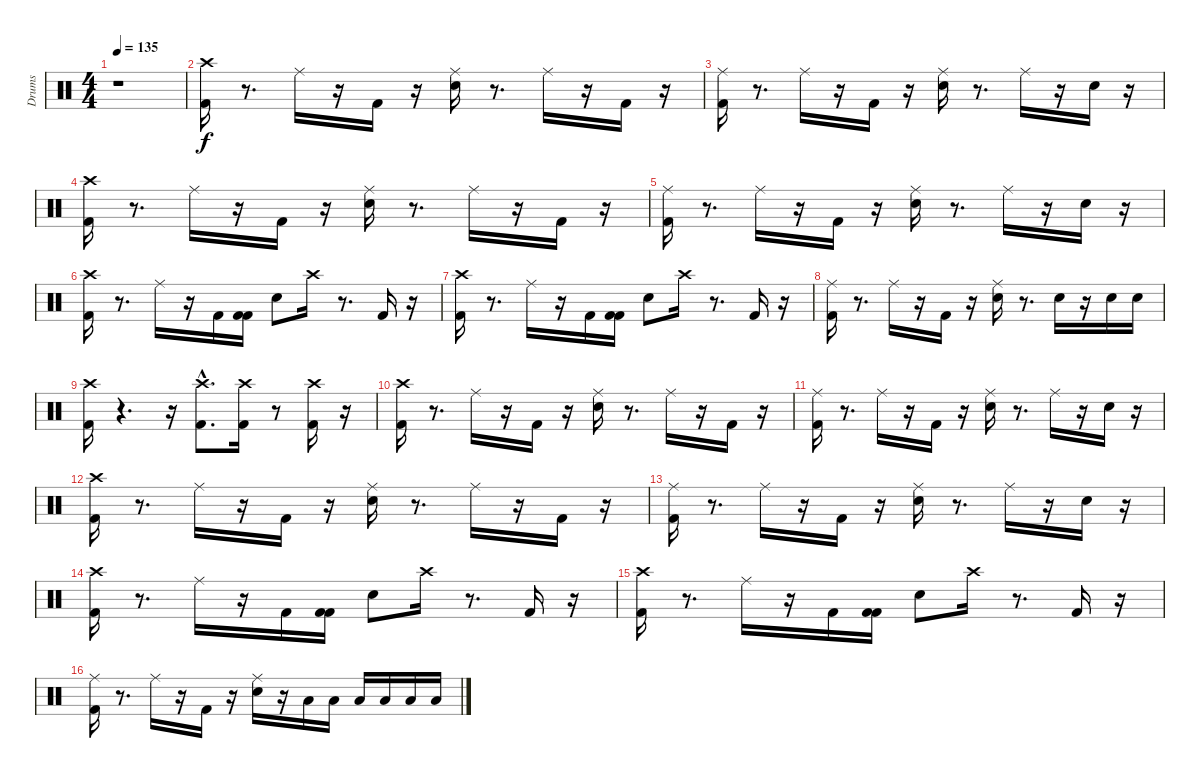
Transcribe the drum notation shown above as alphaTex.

\track ("Drums" "Drums") {instrument percussion}
\staff {score}
\articulation defaults
\ts (4 4)
\tempo 135
\clef neutral
\ks c
r.1{dy f} |
("Kick (hit) 2" "Crash high (hit)").16 r.8{d} "Ride (middle)".16 r.16 "Kick (hit) 2".16 r.16 ("Snare (hit) 2" "Ride (middle)").16 r.8{d} "Ride (middle)".16 r.16 "Kick (hit) 2".16 r.16 |
("Kick (hit) 2" "Ride (middle)").16 r.8{d} "Ride (middle)".16 r.16 "Kick (hit) 2".16 r.16 ("Snare (hit) 2" "Ride (middle)").16 r.8{d} "Ride (middle)".16 r.16 "Snare (hit) 2".16 r.16 |
("Kick (hit) 2" "Crash high (hit)").16 r.8{d} "Ride (middle)".16 r.16 "Kick (hit) 2".16 r.16 ("Snare (hit) 2" "Ride (middle)").16 r.8{d} "Ride (middle)".16 r.16 "Kick (hit) 2".16 r.16 |
("Kick (hit) 2" "Ride (middle)").16 r.8{d} "Ride (middle)".16 r.16 "Kick (hit) 2".16 r.16 ("Snare (hit) 2" "Ride (middle)").16 r.8{d} "Ride (middle)".16 r.16 "Snare (hit) 2".16 r.16 |
("Kick (hit) 2" "Crash high (hit)").16 r.8{d} "Ride (middle)".16 r.16 "Kick (hit) 2".16 ("Kick (hit) 2" "Kick (hit) 2").16 "Snare (hit) 2".8 "Crash high (hit)".16 r.8{d} "Kick (hit) 2".16 r.16 |
("Kick (hit) 2" "Crash high (hit)").16 r.8{d} "Ride (middle)".16 r.16 "Kick (hit) 2".16 ("Kick (hit) 2" "Kick (hit) 2").16 "Snare (hit) 2".8 "Crash high (hit)".16 r.8{d} "Kick (hit) 2".16 r.16 |
("Kick (hit) 2" "Ride (middle)").16 r.8{d} "Ride (middle)".16 r.16 "Kick (hit) 2".16 r.16 ("Snare (hit) 2" "Ride (middle)").16 r.8{d} "Snare (hit) 2".16 r.16 "Snare (hit) 2".16 "Snare (hit) 2".16 |
("Kick (hit) 2" "Crash high (hit)").16 r.4{d} r.16 ("Kick (hit) 2"{hac} "Crash high (hit)"{hac}).8{d} ("Kick (hit) 2" "Crash high (hit)").16 r.8 ("Kick (hit) 2" "Crash high (hit)").16 r.16 |
("Kick (hit) 2" "Crash high (hit)").16 r.8{d} "Ride (middle)".16 r.16 "Kick (hit) 2".16 r.16 ("Snare (hit) 2" "Ride (middle)").16 r.8{d} "Ride (middle)".16 r.16 "Kick (hit) 2".16 r.16 |
("Kick (hit) 2" "Ride (middle)").16 r.8{d} "Ride (middle)".16 r.16 "Kick (hit) 2".16 r.16 ("Snare (hit) 2" "Ride (middle)").16 r.8{d} "Ride (middle)".16 r.16 "Snare (hit) 2".16 r.16 |
("Kick (hit) 2" "Crash high (hit)").16 r.8{d} "Ride (middle)".16 r.16 "Kick (hit) 2".16 r.16 ("Snare (hit) 2" "Ride (middle)").16 r.8{d} "Ride (middle)".16 r.16 "Kick (hit) 2".16 r.16 |
("Kick (hit) 2" "Ride (middle)").16 r.8{d} "Ride (middle)".16 r.16 "Kick (hit) 2".16 r.16 ("Snare (hit) 2" "Ride (middle)").16 r.8{d} "Ride (middle)".16 r.16 "Snare (hit) 2".16 r.16 |
("Kick (hit) 2" "Crash high (hit)").16 r.8{d} "Ride (middle)".16 r.16 "Kick (hit) 2".16 ("Kick (hit) 2" "Kick (hit) 2").16 "Snare (hit) 2".8 "Crash high (hit)".16 r.8{d} "Kick (hit) 2".16 r.16 |
("Kick (hit) 2" "Crash high (hit)").16 r.8{d} "Ride (middle)".16 r.16 "Kick (hit) 2".16 ("Kick (hit) 2" "Kick (hit) 2").16 "Snare (hit) 2".8 "Crash high (hit)".16 r.8{d} "Kick (hit) 2".16 r.16 |
("Kick (hit) 2" "Ride (middle)").16 r.8{d} "Ride (middle)".16 r.16 "Kick (hit) 2".16 r.16 ("Snare (hit) 2" "Ride (middle)").16 r.16 "Low Tom (hit)".16 "Low Tom (hit)".16 "Low Tom (hit)".16 "Low Floor Tom (hit)".16 "Low Floor Tom (hit)".16 "Low Floor Tom (hit)".16
